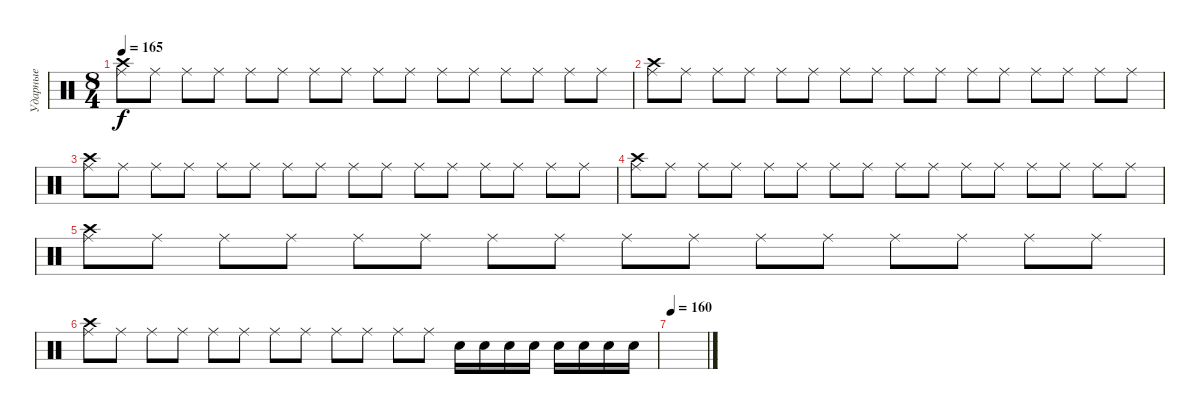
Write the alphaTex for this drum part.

\track ("Ударные" "Ударные") {instrument percussion}
\staff {score}
\articulation defaults
\ts (8 4)
\tempo 165
\clef neutral
\ks c
("Ride (middle)" "Crash high (hit)").8{dy f} "Ride (middle)".8 "Ride (middle)".8 "Ride (middle)".8 "Ride (middle)".8 "Ride (middle)".8 "Ride (middle)".8 "Ride (middle)".8 "Ride (middle)".8 "Ride (middle)".8 "Ride (middle)".8 "Ride (middle)".8 "Ride (middle)".8 "Ride (middle)".8 "Ride (middle)".8 "Ride (middle)".8 |
("Ride (middle)" "Crash high (hit)").8 "Ride (middle)".8 "Ride (middle)".8 "Ride (middle)".8 "Ride (middle)".8 "Ride (middle)".8 "Ride (middle)".8 "Ride (middle)".8 "Ride (middle)".8 "Ride (middle)".8 "Ride (middle)".8 "Ride (middle)".8 "Ride (middle)".8 "Ride (middle)".8 "Ride (middle)".8 "Ride (middle)".8 |
("Ride (middle)" "Crash high (hit)").8 "Ride (middle)".8 "Ride (middle)".8 "Ride (middle)".8 "Ride (middle)".8 "Ride (middle)".8 "Ride (middle)".8 "Ride (middle)".8 "Ride (middle)".8 "Ride (middle)".8 "Ride (middle)".8 "Ride (middle)".8 "Ride (middle)".8 "Ride (middle)".8 "Ride (middle)".8 "Ride (middle)".8 |
("Ride (middle)" "Crash high (hit)").8 "Ride (middle)".8 "Ride (middle)".8 "Ride (middle)".8 "Ride (middle)".8 "Ride (middle)".8 "Ride (middle)".8 "Ride (middle)".8 "Ride (middle)".8 "Ride (middle)".8 "Ride (middle)".8 "Ride (middle)".8 "Ride (middle)".8 "Ride (middle)".8 "Ride (middle)".8 "Ride (middle)".8 |
("Ride (middle)" "Crash high (hit)").8 "Ride (middle)".8 "Ride (middle)".8 "Ride (middle)".8 "Ride (middle)".8 "Ride (middle)".8 "Ride (middle)".8 "Ride (middle)".8 "Ride (middle)".8 "Ride (middle)".8 "Ride (middle)".8 "Ride (middle)".8 "Ride (middle)".8 "Ride (middle)".8 "Ride (middle)".8 "Ride (middle)".8 |
("Ride (middle)" "Crash high (hit)").8 "Ride (middle)".8 "Ride (middle)".8 "Ride (middle)".8 "Ride (middle)".8 "Ride (middle)".8 "Ride (middle)".8 "Ride (middle)".8 "Ride (middle)".8 "Ride (middle)".8 "Ride (middle)".8 "Ride (middle)".8 "Snare (hit) 2".16 "Snare (hit) 2".16 "Snare (hit) 2".16 "Snare (hit) 2".16 "Snare (hit) 2".16 "Snare (hit) 2".16 "Snare (hit) 2".16 "Snare (hit) 2".16 |
\tempo 160
